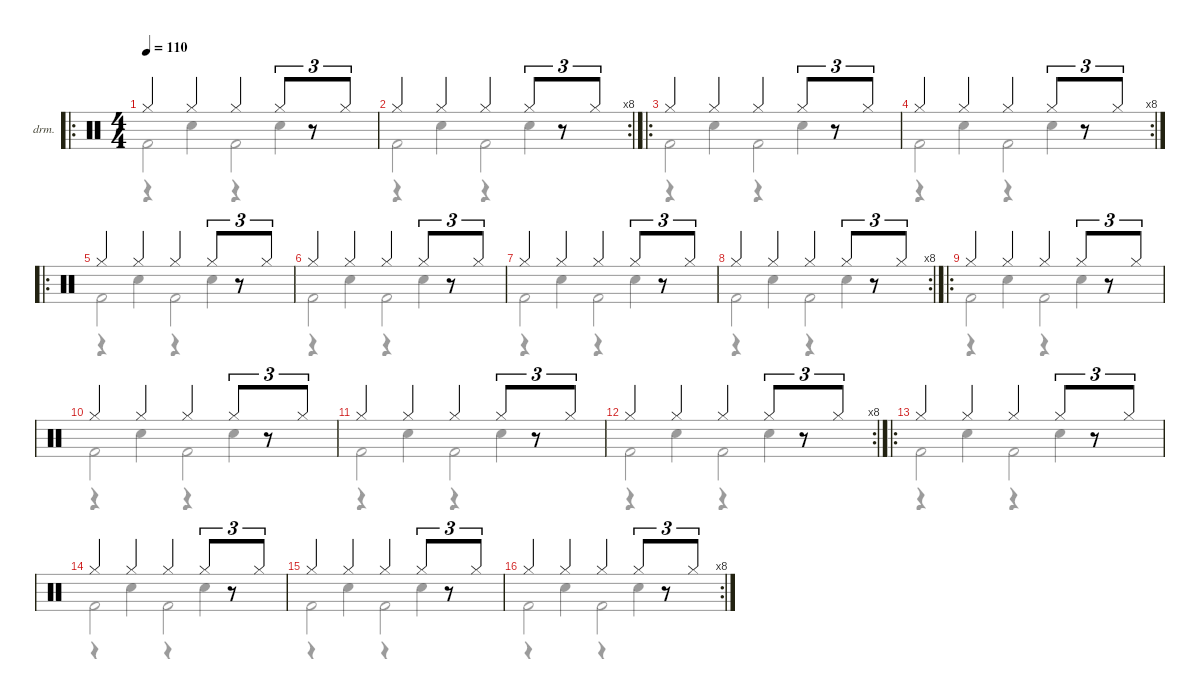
\defaultSystemsLayout 4
\hideDynamics
\bracketExtendMode nobrackets
\firstSystemTrackNameOrientation horizontal
\otherSystemsTrackNameOrientation horizontal
\track ("Drumkit" "drm.") {defaultSystemsLayout 1 multiBarRest instrument percussion}
\staff {score}
\articulation defaults
\voice
\ro
\ts (4 4)
\tempo 110
\clef neutral
\ks c "Hi-Hat (closed)".4{dy fff beam Up} "Hi-Hat (closed)".4{beam Up} "Hi-Hat (closed)".4{beam Up} "Hi-Hat (closed)".8{tu (3 2) beam Up}
r.8{tu (3 2) beam Up} "Hi-Hat (closed)".8{tu (3 2) beam Up} |
\rc 8 "Hi-Hat (closed)".4{beam Up} "Hi-Hat (closed)".4{beam Up} "Hi-Hat (closed)".4{beam Up} "Hi-Hat (closed)".8{tu (3 2) beam Up}
r.8{tu (3 2) beam Up} "Hi-Hat (closed)".8{tu (3 2) beam Up} |
\ro "Hi-Hat (closed)".4{beam Up} "Hi-Hat (closed)".4{beam Up} "Hi-Hat (closed)".4{beam Up} "Hi-Hat (closed)".8{tu (3 2) beam Up}
r.8{tu (3 2) beam Up} "Hi-Hat (closed)".8{tu (3 2) beam Up} |
\rc 8 "Hi-Hat (closed)".4{beam Up} "Hi-Hat (closed)".4{beam Up} "Hi-Hat (closed)".4{beam Up} "Hi-Hat (closed)".8{tu (3 2) beam Up}
r.8{tu (3 2) beam Up} "Hi-Hat (closed)".8{tu (3 2) beam Up} |
\ro "Hi-Hat (closed)".4{beam Up} "Hi-Hat (closed)".4{beam Up} "Hi-Hat (closed)".4{beam Up} "Hi-Hat (closed)".8{tu (3 2) beam Up}
r.8{tu (3 2) beam Up} "Hi-Hat (closed)".8{tu (3 2) beam Up} |
"Hi-Hat (closed)".4{beam Up} "Hi-Hat (closed)".4{beam Up} "Hi-Hat (closed)".4{beam Up} "Hi-Hat (closed)".8{tu (3 2) beam Up} r.8{tu (3 2) beam Up} "Hi-Hat (closed)".8{tu (3 2) beam Up} |
"Hi-Hat (closed)".4{beam Up} "Hi-Hat (closed)".4{beam Up} "Hi-Hat (closed)".4{beam Up} "Hi-Hat (closed)".8{tu (3 2) beam Up} r.8{tu (3 2) beam Up} "Hi-Hat (closed)".8{tu (3 2) beam Up} |
\rc 8 "Hi-Hat (closed)".4{beam Up} "Hi-Hat (closed)".4{beam Up} "Hi-Hat (closed)".4{beam Up} "Hi-Hat (closed)".8{tu (3 2) beam Up}
r.8{tu (3 2) beam Up} "Hi-Hat (closed)".8{tu (3 2) beam Up} |
\ro "Hi-Hat (closed)".4{beam Up} "Hi-Hat (closed)".4{beam Up} "Hi-Hat (closed)".4{beam Up} "Hi-Hat (closed)".8{tu (3 2) beam Up}
r.8{tu (3 2) beam Up} "Hi-Hat (closed)".8{tu (3 2) beam Up} |
"Hi-Hat (closed)".4{beam Up} "Hi-Hat (closed)".4{beam Up} "Hi-Hat (closed)".4{beam Up} "Hi-Hat (closed)".8{tu (3 2) beam Up} r.8{tu (3 2) beam Up} "Hi-Hat (closed)".8{tu (3 2) beam Up} |
"Hi-Hat (closed)".4{beam Up} "Hi-Hat (closed)".4{beam Up} "Hi-Hat (closed)".4{beam Up} "Hi-Hat (closed)".8{tu (3 2) beam Up} r.8{tu (3 2) beam Up} "Hi-Hat (closed)".8{tu (3 2) beam Up} |
\rc 8 "Hi-Hat (closed)".4{beam Up} "Hi-Hat (closed)".4{beam Up} "Hi-Hat (closed)".4{beam Up} "Hi-Hat (closed)".8{tu (3 2) beam Up}
r.8{tu (3 2) beam Up} "Hi-Hat (closed)".8{tu (3 2) beam Up} |
\ro "Hi-Hat (closed)".4{beam Up} "Hi-Hat (closed)".4{beam Up} "Hi-Hat (closed)".4{beam Up} "Hi-Hat (closed)".8{tu (3 2) beam Up}
r.8{tu (3 2) beam Up} "Hi-Hat (closed)".8{tu (3 2) beam Up} |
"Hi-Hat (closed)".4{beam Up} "Hi-Hat (closed)".4{beam Up} "Hi-Hat (closed)".4{beam Up} "Hi-Hat (closed)".8{tu (3 2) beam Up} r.8{tu (3 2) beam Up} "Hi-Hat (closed)".8{tu (3 2) beam Up} |
"Hi-Hat (closed)".4{beam Up} "Hi-Hat (closed)".4{beam Up} "Hi-Hat (closed)".4{beam Up} "Hi-Hat (closed)".8{tu (3 2) beam Up} r.8{tu (3 2) beam Up} "Hi-Hat (closed)".8{tu (3 2) beam Up} |
\rc 8 "Hi-Hat (closed)".4{beam Up} "Hi-Hat (closed)".4{beam Up} "Hi-Hat (closed)".4{beam Up} "Hi-Hat (closed)".8{tu (3 2) beam Up}
r.8{tu (3 2) beam Up} "Hi-Hat (closed)".8{tu (3 2) beam Up}
\voice
\clef neutral
\ottava regular
\simile none
\ks c "Kick (hit) 2".2{dy p} "Kick (hit) 2".2
|
"Kick (hit) 2".2 "Kick (hit) 2".2 |
"Kick (hit) 2".2 "Kick (hit) 2".2 |
"Kick (hit) 2".2 "Kick (hit) 2".2 |
"Kick (hit) 2".2 "Kick (hit) 2".2 |
"Kick (hit) 2".2 "Kick (hit) 2".2 |
"Kick (hit) 2".2 "Kick (hit) 2".2 |
"Kick (hit) 2".2 "Kick (hit) 2".2 |
"Kick (hit) 2".2 "Kick (hit) 2".2 |
"Kick (hit) 2".2 "Kick (hit) 2".2 |
"Kick (hit) 2".2 "Kick (hit) 2".2 |
"Kick (hit) 2".2 "Kick (hit) 2".2 |
"Kick (hit) 2".2 "Kick (hit) 2".2 |
"Kick (hit) 2".2 "Kick (hit) 2".2 |
"Kick (hit) 2".2 "Kick (hit) 2".2 |
"Kick (hit) 2".2 "Kick (hit) 2".2
\voice
\clef neutral
\ottava regular
\simile none
\ks c
r.4{dy p} "Snare (hit) 2".4 r.4 "Snare (hit) 2".4 |
r.4 "Snare (hit) 2".4 r.4 "Snare (hit) 2".4 |
r.4 "Snare (hit) 2".4 r.4 "Snare (hit) 2".4 |
r.4 "Snare (hit) 2".4 r.4 "Snare (hit) 2".4 |
r.4 "Snare (hit) 2".4 r.4 "Snare (hit) 2".4 |
r.4 "Snare (hit) 2".4 r.4 "Snare (hit) 2".4 |
r.4 "Snare (hit) 2".4 r.4 "Snare (hit) 2".4 |
r.4 "Snare (hit) 2".4 r.4 "Snare (hit) 2".4 |
r.4 "Snare (hit) 2".4 r.4 "Snare (hit) 2".4 |
r.4 "Snare (hit) 2".4 r.4 "Snare (hit) 2".4 |
r.4 "Snare (hit) 2".4 r.4 "Snare (hit) 2".4 |
r.4 "Snare (hit) 2".4 r.4 "Snare (hit) 2".4 |
r.4 "Snare (hit) 2".4 r.4 "Snare (hit) 2".4 |
r.4 "Snare (hit) 2".4 r.4 "Snare (hit) 2".4 |
r.4 "Snare (hit) 2".4 r.4 "Snare (hit) 2".4 |
r.4 "Snare (hit) 2".4 r.4 "Snare (hit) 2".4
